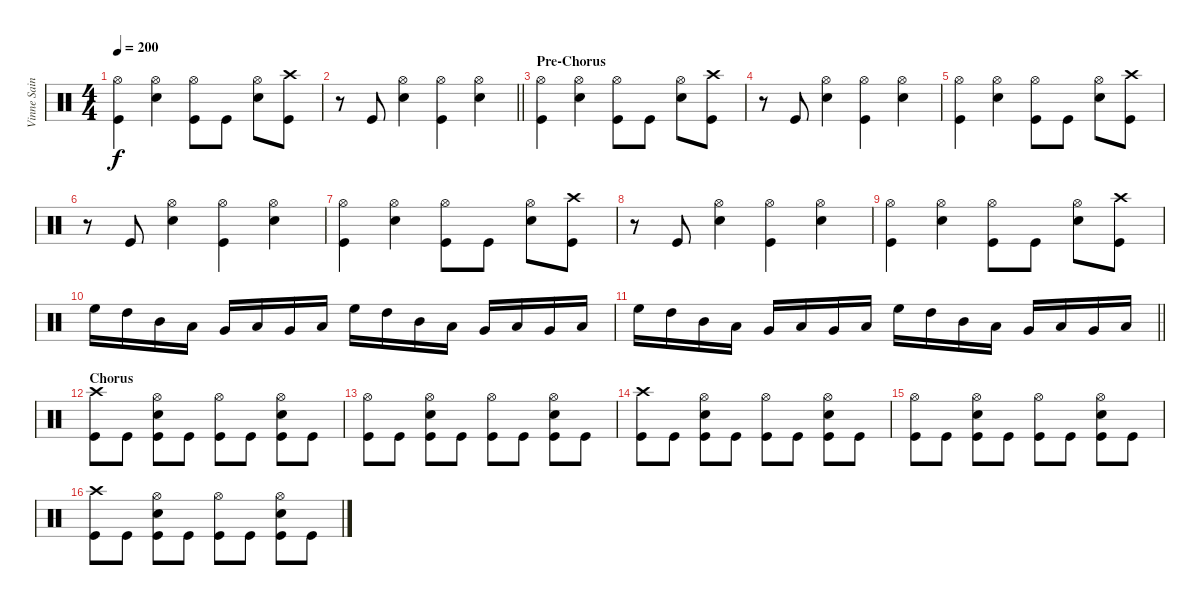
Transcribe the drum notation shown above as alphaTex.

\track ("Vinne Saint James" "Vinne Sain") {instrument percussion}
\staff {score}
\articulation defaults
\ts (4 4)
\tempo 200
\clef neutral
\ks c
("Hi-Hat (open)" "Kick (hit)").4{dy f} ("Hi-Hat (open)" "Electric Snare (hit)").4 ("Hi-Hat (open)" "Kick (hit)").8 "Kick (hit)".8 ("Hi-Hat (open)" "Electric Snare (hit)").8 ("Crash high (hit)" "Kick (hit)").8 |
\barLineRight lightlight
r.8 "Kick (hit)".8 ("Hi-Hat (open)" "Electric Snare (hit)").4 ("Hi-Hat (open)" "Kick (hit)").4 ("Hi-Hat (open)" "Electric Snare (hit)").4 |
\section ("" "Pre-Chorus")
("Hi-Hat (open)" "Kick (hit)").4 ("Hi-Hat (open)" "Electric Snare (hit)").4 ("Hi-Hat (open)" "Kick (hit)").8 "Kick (hit)".8 ("Hi-Hat (open)" "Electric Snare (hit)").8 ("Crash high (hit)" "Kick (hit)").8 |
r.8 "Kick (hit)".8 ("Hi-Hat (open)" "Electric Snare (hit)").4 ("Hi-Hat (open)" "Kick (hit)").4 ("Hi-Hat (open)" "Electric Snare (hit)").4 |
("Hi-Hat (open)" "Kick (hit)").4 ("Hi-Hat (open)" "Electric Snare (hit)").4 ("Hi-Hat (open)" "Kick (hit)").8 "Kick (hit)".8 ("Hi-Hat (open)" "Electric Snare (hit)").8 ("Crash high (hit)" "Kick (hit)").8 |
r.8 "Kick (hit)".8 ("Hi-Hat (open)" "Electric Snare (hit)").4 ("Hi-Hat (open)" "Kick (hit)").4 ("Hi-Hat (open)" "Electric Snare (hit)").4 |
("Hi-Hat (open)" "Kick (hit)").4 ("Hi-Hat (open)" "Electric Snare (hit)").4 ("Hi-Hat (open)" "Kick (hit)").8 "Kick (hit)".8 ("Hi-Hat (open)" "Electric Snare (hit)").8 ("Crash high (hit)" "Kick (hit)").8 |
r.8 "Kick (hit)".8 ("Hi-Hat (open)" "Electric Snare (hit)").4 ("Hi-Hat (open)" "Kick (hit)").4 ("Hi-Hat (open)" "Electric Snare (hit)").4 |
("Hi-Hat (open)" "Kick (hit)").4 ("Hi-Hat (open)" "Electric Snare (hit)").4 ("Hi-Hat (open)" "Kick (hit)").8 "Kick (hit)".8 ("Hi-Hat (open)" "Electric Snare (hit)").8 ("Crash high (hit)" "Kick (hit)").8 |
"High Floor Tom (hit)".16 "High Tom (hit)".16 "Mid Tom (hit)".16 "Low Tom (hit)".16 "Very Low Tom (hit)".16 "Low Floor Tom (hit)".16 "Very Low Tom (hit)".16 "Low Floor Tom (hit)".16 "High Floor Tom (hit)".16 "High Tom (hit)".16 "Mid Tom (hit)".16 "Low Tom (hit)".16 "Very Low Tom (hit)".16 "Low Floor Tom (hit)".16 "Very Low Tom (hit)".16 "Low Floor Tom (hit)".16 |
\barLineRight lightlight "High Floor Tom (hit)".16 "High Tom (hit)".16 "Mid Tom (hit)".16 "Low Tom (hit)".16 "Very Low Tom (hit)".16 "Low Floor Tom (hit)".16 "Very Low Tom (hit)".16 "Low Floor Tom (hit)".16 "High Floor Tom (hit)".16 "High Tom (hit)".16 "Mid Tom (hit)".16 "Low Tom (hit)".16 "Very Low Tom (hit)".16 "Low Floor Tom (hit)".16 "Very Low Tom (hit)".16 "Low Floor Tom (hit)".16
|
\section ("" "Chorus")
("Crash high (hit)" "Kick (hit)").8 "Kick (hit)".8 ("Hi-Hat (open)" "Electric Snare (hit)" "Kick (hit)").8 "Kick (hit)".8 ("Hi-Hat (open)" "Kick (hit)").8 "Kick (hit)".8 ("Hi-Hat (open)" "Electric Snare (hit)" "Kick (hit)").8 "Kick (hit)".8 |
("Hi-Hat (open)" "Kick (hit)").8 "Kick (hit)".8 ("Hi-Hat (open)" "Electric Snare (hit)" "Kick (hit)").8 "Kick (hit)".8 ("Hi-Hat (open)" "Kick (hit)").8 "Kick (hit)".8 ("Hi-Hat (open)" "Electric Snare (hit)" "Kick (hit)").8 "Kick (hit)".8 |
("Crash high (hit)" "Kick (hit)").8 "Kick (hit)".8 ("Hi-Hat (open)" "Electric Snare (hit)" "Kick (hit)").8 "Kick (hit)".8 ("Hi-Hat (open)" "Kick (hit)").8 "Kick (hit)".8 ("Hi-Hat (open)" "Electric Snare (hit)" "Kick (hit)").8 "Kick (hit)".8 |
("Hi-Hat (open)" "Kick (hit)").8 "Kick (hit)".8 ("Hi-Hat (open)" "Electric Snare (hit)" "Kick (hit)").8 "Kick (hit)".8 ("Hi-Hat (open)" "Kick (hit)").8 "Kick (hit)".8 ("Hi-Hat (open)" "Electric Snare (hit)" "Kick (hit)").8 "Kick (hit)".8 |
("Crash high (hit)" "Kick (hit)").8 "Kick (hit)".8 ("Hi-Hat (open)" "Electric Snare (hit)" "Kick (hit)").8 "Kick (hit)".8 ("Hi-Hat (open)" "Kick (hit)").8 "Kick (hit)".8 ("Hi-Hat (open)" "Electric Snare (hit)" "Kick (hit)").8 "Kick (hit)".8
